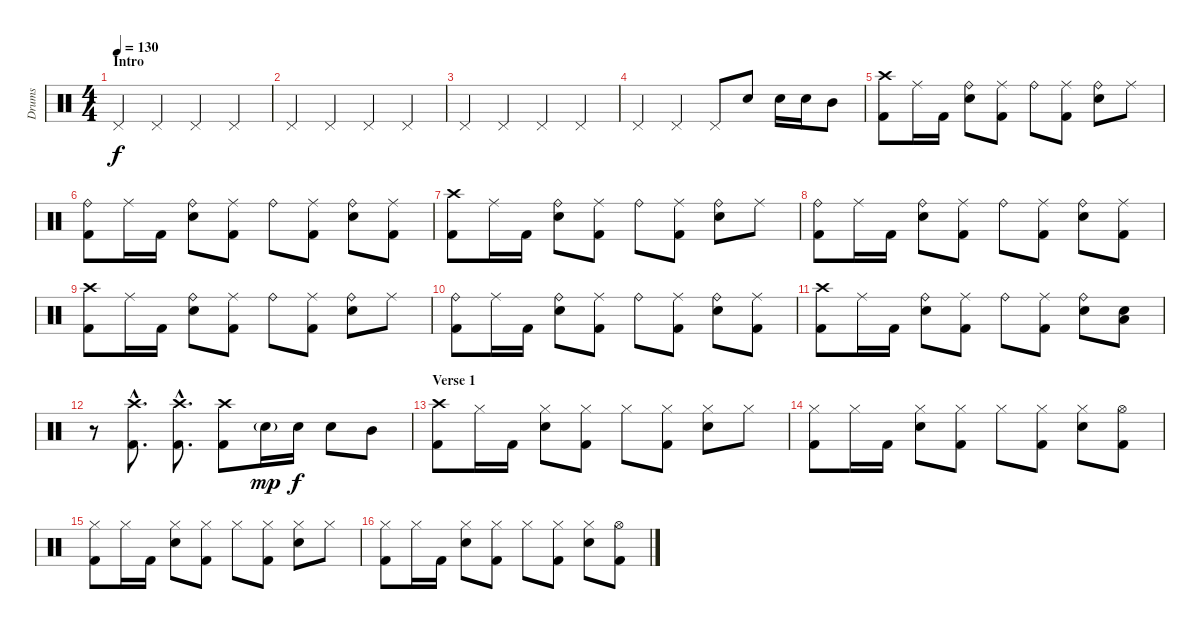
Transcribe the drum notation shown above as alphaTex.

\track ("Drums" "Drums") {instrument percussion}
\staff {score}
\articulation defaults
\ts (4 4)
\section ("" "Intro")
\tempo 130
\clef neutral
\ks c "Pedal Hi-Hat (hit)".4{dy f} "Pedal Hi-Hat (hit)".4 "Pedal Hi-Hat (hit)".4 "Pedal Hi-Hat (hit)".4
|
"Pedal Hi-Hat (hit)".4 "Pedal Hi-Hat (hit)".4 "Pedal Hi-Hat (hit)".4 "Pedal Hi-Hat (hit)".4 |
"Pedal Hi-Hat (hit)".4 "Pedal Hi-Hat (hit)".4 "Pedal Hi-Hat (hit)".4 "Pedal Hi-Hat (hit)".4 |
"Pedal Hi-Hat (hit)".4 "Pedal Hi-Hat (hit)".4 "Pedal Hi-Hat (hit)".8 "Electric Snare (hit)".8 "Electric Snare (hit)".16 "Electric Snare (hit)".16 "Mid Tom (hit)".8 |
("Crash high (hit)" "Kick (hit) 2").8 "Ride (middle)".16 "Kick (hit) 2".16 ("Ride (bell)" "Electric Snare (hit)").8 ("Ride (middle)" "Kick (hit) 2").8 "Ride (bell)".8 ("Ride (middle)" "Kick (hit) 2").8 ("Ride (bell)" "Electric Snare (hit)").8 "Ride (middle)".8 |
("Ride (bell)" "Kick (hit) 2").8 "Ride (middle)".16 "Kick (hit) 2".16 ("Ride (bell)" "Electric Snare (hit)").8 ("Ride (middle)" "Kick (hit) 2").8 "Ride (bell)".8 ("Ride (middle)" "Kick (hit) 2").8 ("Ride (bell)" "Electric Snare (hit)").8 ("Ride (middle)" "Kick (hit) 2").8 |
("Crash high (hit)" "Kick (hit) 2").8 "Ride (middle)".16 "Kick (hit) 2".16 ("Ride (bell)" "Electric Snare (hit)").8 ("Ride (middle)" "Kick (hit) 2").8 "Ride (bell)".8 ("Ride (middle)" "Kick (hit) 2").8 ("Ride (bell)" "Electric Snare (hit)").8 "Ride (middle)".8 |
("Ride (bell)" "Kick (hit) 2").8 "Ride (middle)".16 "Kick (hit) 2".16 ("Ride (bell)" "Electric Snare (hit)").8 ("Ride (middle)" "Kick (hit) 2").8 "Ride (bell)".8 ("Ride (middle)" "Kick (hit) 2").8 ("Ride (bell)" "Electric Snare (hit)").8 ("Ride (middle)" "Kick (hit) 2").8 |
("Crash high (hit)" "Kick (hit) 2").8 "Ride (middle)".16 "Kick (hit) 2".16 ("Ride (bell)" "Electric Snare (hit)").8 ("Ride (middle)" "Kick (hit) 2").8 "Ride (bell)".8 ("Ride (middle)" "Kick (hit) 2").8 ("Ride (bell)" "Electric Snare (hit)").8 "Ride (middle)".8 |
("Ride (bell)" "Kick (hit) 2").8 "Ride (middle)".16 "Kick (hit) 2".16 ("Ride (bell)" "Electric Snare (hit)").8 ("Ride (middle)" "Kick (hit) 2").8 "Ride (bell)".8 ("Ride (middle)" "Kick (hit) 2").8 ("Ride (bell)" "Electric Snare (hit)").8 ("Ride (middle)" "Kick (hit) 2").8 |
("Crash high (hit)" "Kick (hit) 2").8 "Ride (middle)".16 "Kick (hit) 2".16 ("Ride (bell)" "Electric Snare (hit)").8 ("Ride (middle)" "Kick (hit) 2").8 "Ride (bell)".8 ("Ride (middle)" "Kick (hit) 2").8 ("Ride (bell)" "Electric Snare (hit)").8 ("Low Floor Tom (hit)" "Electric Snare (hit)").8 |
r.8 ("Crash high (hit)"{hac} "Kick (hit) 2"{hac}).8{d} ("Crash high (hit)"{hac} "Kick (hit) 2"{hac}).8{d} ("Crash high (hit)" "Kick (hit) 2").8 "Electric Snare (hit)"{g}.16{dy mp} "Electric Snare (hit)".16{dy f} "Electric Snare (hit)".8 "Mid Tom (hit)".8 |
\section ("" "Verse 1")
("Crash high (hit)" "Kick (hit) 2").8 "Hi-Hat (closed)".16 "Kick (hit) 2".16 ("Hi-Hat (closed)" "Electric Snare (hit)").8 ("Hi-Hat (closed)" "Kick (hit) 2").8 "Hi-Hat (closed)".8 ("Hi-Hat (closed)" "Kick (hit) 2").8 ("Hi-Hat (closed)" "Electric Snare (hit)").8 "Hi-Hat (closed)".8 |
("Hi-Hat (closed)" "Kick (hit) 2").8 "Hi-Hat (closed)".16 "Kick (hit) 2".16 ("Hi-Hat (closed)" "Electric Snare (hit)").8 ("Hi-Hat (closed)" "Kick (hit) 2").8 "Hi-Hat (closed)".8 ("Hi-Hat (closed)" "Kick (hit) 2").8 ("Hi-Hat (closed)" "Electric Snare (hit)").8 ("Hi-Hat (open)" "Kick (hit) 2").8 |
("Hi-Hat (closed)" "Kick (hit) 2").8 "Hi-Hat (closed)".16 "Kick (hit) 2".16 ("Hi-Hat (closed)" "Electric Snare (hit)").8 ("Hi-Hat (closed)" "Kick (hit) 2").8 "Hi-Hat (closed)".8 ("Hi-Hat (closed)" "Kick (hit) 2").8 ("Hi-Hat (closed)" "Electric Snare (hit)").8 "Hi-Hat (closed)".8 |
("Hi-Hat (closed)" "Kick (hit) 2").8 "Hi-Hat (closed)".16 "Kick (hit) 2".16 ("Hi-Hat (closed)" "Electric Snare (hit)").8 ("Hi-Hat (closed)" "Kick (hit) 2").8 "Hi-Hat (closed)".8 ("Hi-Hat (closed)" "Kick (hit) 2").8 ("Hi-Hat (closed)" "Electric Snare (hit)").8 ("Hi-Hat (open)" "Kick (hit) 2").8
